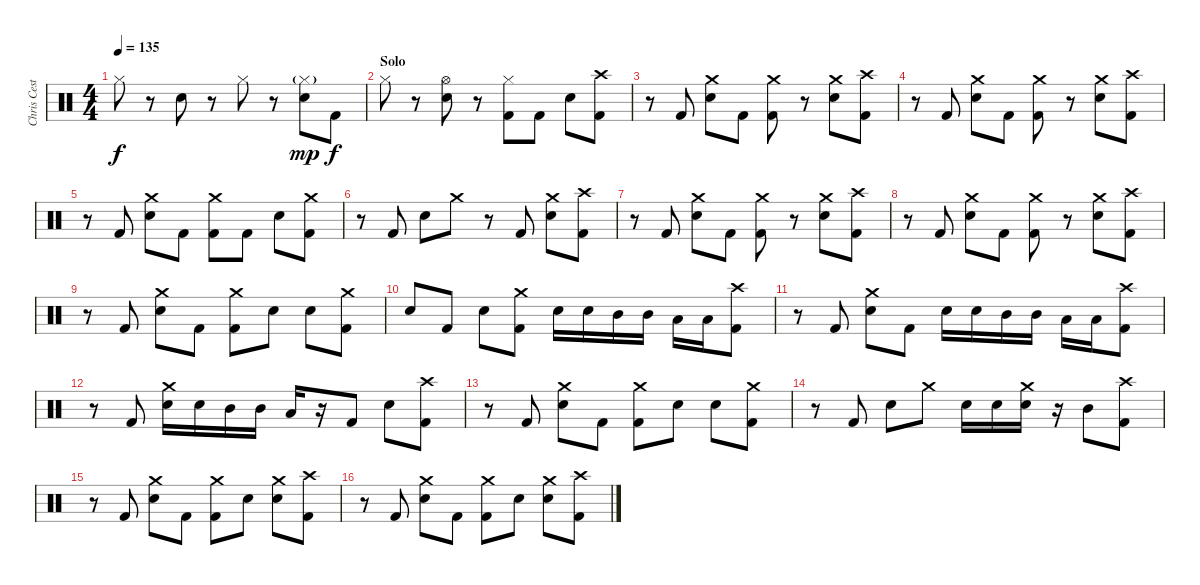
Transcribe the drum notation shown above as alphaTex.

\track ("Chris Cester - Drums" "Chris Cest") {instrument percussion}
\staff {score}
\articulation defaults
\ts (4 4)
\tempo 135
\clef neutral
\ks c "Hi-Hat (closed)".8{dy f}
r.8 "Electric Snare (hit)".8 r.8 "Hi-Hat (closed)".8 r.8 ("Hi-Hat (closed)"{g} "Electric Snare (hit)").8{dy mp} "Kick (hit) 2".8{dy f} |
\section ("" "Solo")
"Hi-Hat (closed)".8 r.8 ("Hi-Hat (open)" "Electric Snare (hit)").8 r.8 ("Hi-Hat (closed)" "Kick (hit) 2").8 "Kick (hit) 2".8 "Electric Snare (hit)".8 ("Crash high (hit)" "Kick (hit) 2").8 |
r.8 "Kick (hit) 2".8 ("Crash medium (hit)" "Electric Snare (hit)").8 "Kick (hit) 2".8 ("Crash medium (hit)" "Kick (hit) 2").8 r.8 ("Crash medium (hit)" "Electric Snare (hit)").8 ("Crash high (hit)" "Kick (hit) 2").8 |
r.8 "Kick (hit) 2".8 ("Crash medium (hit)" "Electric Snare (hit)").8 "Kick (hit) 2".8 ("Crash medium (hit)" "Kick (hit) 2").8 r.8 ("Crash medium (hit)" "Electric Snare (hit)").8 ("Crash high (hit)" "Kick (hit) 2").8 |
r.8 "Kick (hit) 2".8 ("Crash medium (hit)" "Electric Snare (hit)").8 "Kick (hit) 2".8 ("Crash medium (hit)" "Kick (hit) 2").8 "Kick (hit) 2".8 "Electric Snare (hit)".8 ("Crash medium (hit)" "Kick (hit) 2").8 |
r.8 "Kick (hit) 2".8 "Electric Snare (hit)".8 "Crash medium (hit)".8 r.8 "Kick (hit) 2".8 ("Crash medium (hit)" "Electric Snare (hit)").8 ("Crash high (hit)" "Kick (hit) 2").8 |
r.8 "Kick (hit) 2".8 ("Crash medium (hit)" "Electric Snare (hit)").8 "Kick (hit) 2".8 ("Crash medium (hit)" "Kick (hit) 2").8 r.8 ("Crash medium (hit)" "Electric Snare (hit)").8 ("Crash high (hit)" "Kick (hit) 2").8 |
r.8 "Kick (hit) 2".8 ("Crash medium (hit)" "Electric Snare (hit)").8 "Kick (hit) 2".8 ("Crash medium (hit)" "Kick (hit) 2").8 r.8 ("Crash medium (hit)" "Electric Snare (hit)").8 ("Crash high (hit)" "Kick (hit) 2").8 |
r.8 "Kick (hit) 2".8 ("Crash medium (hit)" "Electric Snare (hit)").8 "Kick (hit) 2".8 ("Crash medium (hit)" "Kick (hit) 2").8 "Electric Snare (hit)".8 "Electric Snare (hit)".8 ("Crash medium (hit)" "Kick (hit) 2").8 |
"Electric Snare (hit)".8 "Kick (hit) 2".8 "Electric Snare (hit)".8 ("Crash medium (hit)" "Kick (hit) 2").8 "Electric Snare (hit)".16 "Electric Snare (hit)".16 "Mid Tom (hit)".16 "Mid Tom (hit)".16 "Low Tom (hit)".16 "Low Tom (hit)".16 ("Crash high (hit)" "Kick (hit) 2").8 |
r.8 "Kick (hit) 2".8 ("Crash medium (hit)" "Electric Snare (hit)").8 "Kick (hit) 2".8 "Electric Snare (hit)".16 "Electric Snare (hit)".16 "Mid Tom (hit)".16 "Mid Tom (hit)".16 "Low Tom (hit)".16 "Low Tom (hit)".16 ("Crash high (hit)" "Kick (hit) 2").8 |
r.8 "Kick (hit) 2".8 ("Crash medium (hit)" "Electric Snare (hit)").16 "Electric Snare (hit)".16 "Mid Tom (hit)".16 "Mid Tom (hit)".16 "Low Tom (hit)".16 r.16 "Kick (hit) 2".8 "Electric Snare (hit)".8 ("Crash high (hit)" "Kick (hit) 2").8 |
r.8 "Kick (hit) 2".8 ("Crash medium (hit)" "Electric Snare (hit)").8 "Kick (hit) 2".8 ("Crash medium (hit)" "Kick (hit) 2").8 "Electric Snare (hit)".8 "Electric Snare (hit)".8 ("Crash medium (hit)" "Kick (hit) 2").8 |
r.8 "Kick (hit) 2".8 "Electric Snare (hit)".8 "Crash medium (hit)".8 "Electric Snare (hit)".16 "Electric Snare (hit)".16 ("Crash medium (hit)" "Electric Snare (hit)").16 r.16 "Mid Tom (hit)".8 ("Crash high (hit)" "Kick (hit) 2").8 |
r.8 "Kick (hit) 2".8 ("Crash medium (hit)" "Electric Snare (hit)").8 "Kick (hit) 2".8 ("Crash medium (hit)" "Kick (hit) 2").8 "Electric Snare (hit)".8 ("Crash medium (hit)" "Electric Snare (hit)").8 ("Crash high (hit)" "Kick (hit) 2").8 |
r.8 "Kick (hit) 2".8 ("Crash medium (hit)" "Electric Snare (hit)").8 "Kick (hit) 2".8 ("Crash medium (hit)" "Kick (hit) 2").8 "Electric Snare (hit)".8 ("Crash medium (hit)" "Electric Snare (hit)").8 ("Crash high (hit)" "Kick (hit) 2").8
